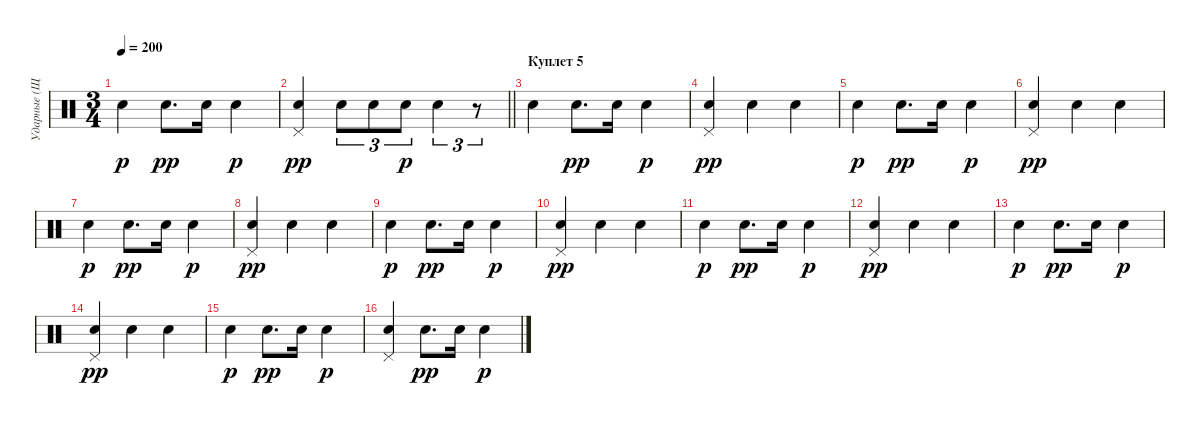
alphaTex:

\track ("Ударные (Щетками)" "Ударные (Щ") {instrument percussion}
\staff {score}
\articulation defaults
\ts (3 4)
\tempo 200
\clef neutral
\ks c "Snare (hit) 2".4{dy p} "Snare (hit) 2".8{d dy pp} "Snare (hit) 2".16 "Snare (hit) 2".4{dy p}
|
\barLineRight lightlight
("Pedal Hi-Hat (hit)" "Snare (hit) 2").4{dy pp} "Snare (hit) 2".8{tu (3 2)} "Snare (hit) 2".8{tu (3 2)} "Snare (hit) 2".8{tu (3 2) dy p} "Snare (hit) 2".4{tu (3 2)} r.8{tu (3 2)} |
\section ("" "Куплет 5")
"Snare (hit) 2".4 "Snare (hit) 2".8{d dy pp} "Snare (hit) 2".16 "Snare (hit) 2".4{dy p} |
("Pedal Hi-Hat (hit)" "Snare (hit) 2").4{dy pp} "Snare (hit) 2".4 "Snare (hit) 2".4 |
"Snare (hit) 2".4{dy p} "Snare (hit) 2".8{d dy pp} "Snare (hit) 2".16 "Snare (hit) 2".4{dy p} |
("Pedal Hi-Hat (hit)" "Snare (hit) 2").4{dy pp} "Snare (hit) 2".4 "Snare (hit) 2".4 |
"Snare (hit) 2".4{dy p} "Snare (hit) 2".8{d dy pp} "Snare (hit) 2".16 "Snare (hit) 2".4{dy p} |
("Pedal Hi-Hat (hit)" "Snare (hit) 2").4{dy pp} "Snare (hit) 2".4 "Snare (hit) 2".4 |
"Snare (hit) 2".4{dy p} "Snare (hit) 2".8{d dy pp} "Snare (hit) 2".16 "Snare (hit) 2".4{dy p} |
("Pedal Hi-Hat (hit)" "Snare (hit) 2").4{dy pp} "Snare (hit) 2".4 "Snare (hit) 2".4 |
"Snare (hit) 2".4{dy p} "Snare (hit) 2".8{d dy pp} "Snare (hit) 2".16 "Snare (hit) 2".4{dy p} |
("Pedal Hi-Hat (hit)" "Snare (hit) 2").4{dy pp} "Snare (hit) 2".4 "Snare (hit) 2".4 |
"Snare (hit) 2".4{dy p} "Snare (hit) 2".8{d dy pp} "Snare (hit) 2".16 "Snare (hit) 2".4{dy p} |
("Pedal Hi-Hat (hit)" "Snare (hit) 2").4{dy pp} "Snare (hit) 2".4 "Snare (hit) 2".4 |
"Snare (hit) 2".4{dy p} "Snare (hit) 2".8{d dy pp} "Snare (hit) 2".16 "Snare (hit) 2".4{dy p} |
("Pedal Hi-Hat (hit)" "Snare (hit) 2").4 "Snare (hit) 2".8{d dy pp} "Snare (hit) 2".16 "Snare (hit) 2".4{dy p}
